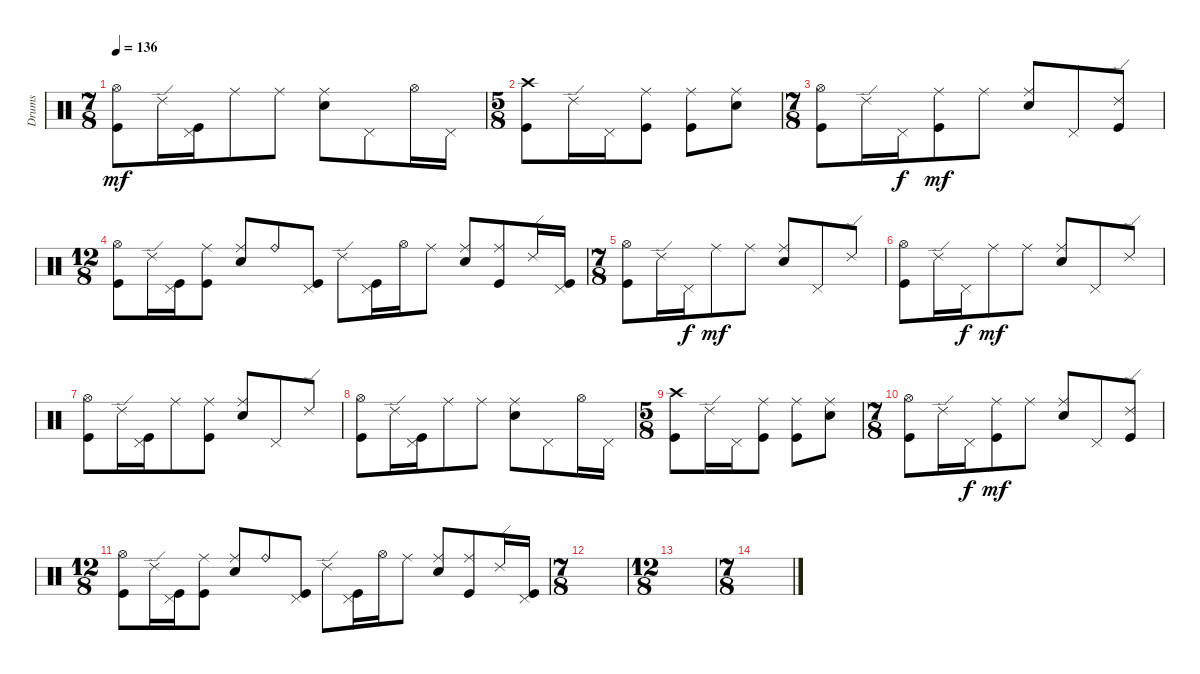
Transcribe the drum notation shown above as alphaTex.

\track ("Drums" "Drums") {instrument percussion}
\staff {score}
\articulation defaults
\ts (7 8)
\tempo 136
\clef neutral
\ks c
("Hi-Hat (open)" "Kick (hit)").8{dy mf} "Ride (edge) 2".16 ("Pedal Hi-Hat (hit)" "Kick (hit)").16 "Ride (middle)".8 "Ride (middle)".8 ("Ride (middle)" "Electric Snare (hit)").8 "Pedal Hi-Hat (hit)".8 "Hi-Hat (open)".16 "Pedal Hi-Hat (hit)".16 |
\ts (5 8)
("Crash high (hit)" "Kick (hit)").8 "Ride (edge) 2".16 "Pedal Hi-Hat (hit)".16 ("Ride (middle)" "Kick (hit)").8 ("Ride (middle)" "Kick (hit)").8 ("Ride (middle)" "Electric Snare (hit)").8 |
\ts (7 8)
("Hi-Hat (open)" "Kick (hit)").8 "Ride (edge) 2".16 "Pedal Hi-Hat (hit)".16{dy f} ("Ride (middle)" "Kick (hit)").8{dy mf} "Ride (middle)".8 ("Ride (middle)" "Electric Snare (hit)").8 "Pedal Hi-Hat (hit)".8 ("Ride (edge) 2" "Kick (hit)").8 |
\ts (12 8)
("Hi-Hat (open)" "Kick (hit)").8 "Ride (edge) 2".16 ("Pedal Hi-Hat (hit)" "Kick (hit)").16 ("Ride (middle)" "Kick (hit)").8 ("Ride (middle)" "Electric Snare (hit)").8 "Ride (bell)".8 ("Pedal Hi-Hat (hit)" "Kick (hit)").8 "Ride (edge) 2".8 ("Pedal Hi-Hat (hit)" "Kick (hit)").16 "Hi-Hat (open)".16 "Ride (middle)".8 ("Ride (middle)" "Electric Snare (hit)").8 ("Ride (middle)" "Kick (hit)").8 "Ride (edge) 2".16 ("Pedal Hi-Hat (hit)" "Kick (hit)").16 |
\ts (7 8)
("Hi-Hat (open)" "Kick (hit)").8 "Ride (edge) 2".16 "Pedal Hi-Hat (hit)".16{dy f} "Ride (middle)".8{dy mf} "Ride (middle)".8 ("Ride (middle)" "Electric Snare (hit)").8 "Pedal Hi-Hat (hit)".8 "Ride (edge) 2".8 |
("Hi-Hat (open)" "Kick (hit)").8 "Ride (edge) 2".16 "Pedal Hi-Hat (hit)".16{dy f} "Ride (middle)".8{dy mf} "Ride (middle)".8 ("Ride (middle)" "Electric Snare (hit)").8 "Pedal Hi-Hat (hit)".8 "Ride (edge) 2".8 |
("Hi-Hat (open)" "Kick (hit)").8 "Ride (edge) 2".16 ("Pedal Hi-Hat (hit)" "Kick (hit)").16 "Ride (middle)".8 ("Ride (middle)" "Kick (hit)").8 ("Ride (middle)" "Electric Snare (hit)").8 "Pedal Hi-Hat (hit)".8 "Ride (edge) 2".8 |
("Hi-Hat (open)" "Kick (hit)").8 "Ride (edge) 2".16 ("Pedal Hi-Hat (hit)" "Kick (hit)").16 "Ride (middle)".8 "Ride (middle)".8 ("Ride (middle)" "Electric Snare (hit)").8 "Pedal Hi-Hat (hit)".8 "Hi-Hat (open)".16 "Pedal Hi-Hat (hit)".16 |
\ts (5 8)
("Crash high (hit)" "Kick (hit)").8 "Ride (edge) 2".16 "Pedal Hi-Hat (hit)".16 ("Ride (middle)" "Kick (hit)").8 ("Ride (middle)" "Kick (hit)").8 ("Ride (middle)" "Electric Snare (hit)").8 |
\ts (7 8)
("Hi-Hat (open)" "Kick (hit)").8 "Ride (edge) 2".16 "Pedal Hi-Hat (hit)".16{dy f} ("Ride (middle)" "Kick (hit)").8{dy mf} "Ride (middle)".8 ("Ride (middle)" "Electric Snare (hit)").8 "Pedal Hi-Hat (hit)".8 ("Ride (edge) 2" "Kick (hit)").8 |
\ts (12 8)
("Hi-Hat (open)" "Kick (hit)").8 "Ride (edge) 2".16 ("Pedal Hi-Hat (hit)" "Kick (hit)").16 ("Ride (middle)" "Kick (hit)").8 ("Ride (middle)" "Electric Snare (hit)").8 "Ride (bell)".8 ("Pedal Hi-Hat (hit)" "Kick (hit)").8 "Ride (edge) 2".8 ("Pedal Hi-Hat (hit)" "Kick (hit)").16 "Hi-Hat (open)".16 "Ride (middle)".8 ("Ride (middle)" "Electric Snare (hit)").8 ("Ride (middle)" "Kick (hit)").8 "Ride (edge) 2".16 ("Pedal Hi-Hat (hit)" "Kick (hit)").16 |
\ts (7 8)
|
\ts (12 8)
|
\ts (7 8)
